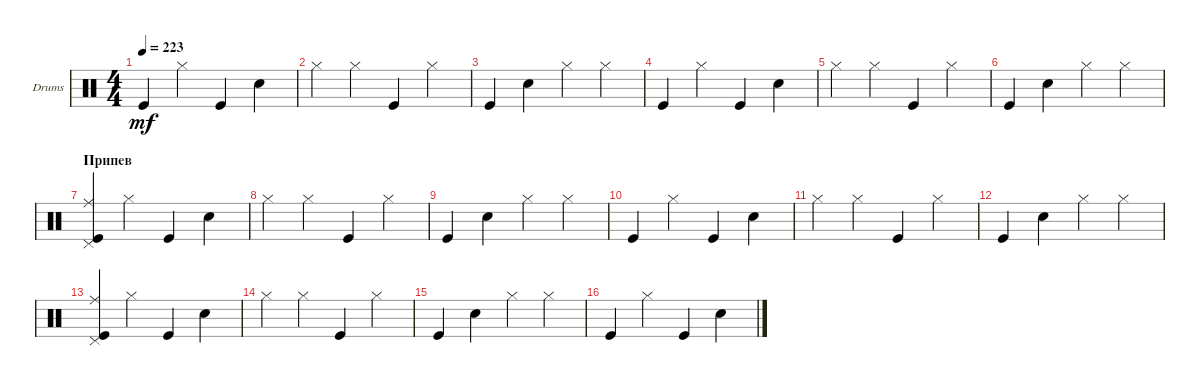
\defaultSystemsLayout 4
\bracketExtendMode groupsimilarinstruments
\firstSystemTrackNameOrientation horizontal
\otherSystemsTrackNameOrientation horizontal
\track ("Drumkit" "Drums") {instrument percussion}
\staff {score}
\articulation defaults
\ts (4 4)
\tempo 223
\clef neutral
\ks c "Kick (hit)".4{dy mf} "Hi-Hat (closed)".4 "Kick (hit)".4 "Snare (hit) 2".4
|
"Hi-Hat (closed)".4 "Hi-Hat (closed)".4 "Kick (hit)".4 "Hi-Hat (closed)".4 |
"Kick (hit)".4 "Snare (hit) 2".4 "Hi-Hat (closed)".4 "Hi-Hat (closed)".4 |
"Kick (hit)".4 "Hi-Hat (closed)".4 "Kick (hit)".4 "Snare (hit) 2".4 |
"Hi-Hat (closed)".4 "Hi-Hat (closed)".4 "Kick (hit)".4 "Hi-Hat (closed)".4 |
"Kick (hit)".4 "Snare (hit) 2".4 "Hi-Hat (closed)".4 "Hi-Hat (closed)".4 |
\section ("" "Припев")
("Kick (hit)" "Ride (middle)" "Pedal Hi-Hat (hit)").4 "Hi-Hat (closed)".4 "Kick (hit)".4 "Snare (hit) 2".4 |
"Hi-Hat (closed)".4 "Hi-Hat (closed)".4 "Kick (hit)".4 "Hi-Hat (closed)".4 |
"Kick (hit)".4 "Snare (hit) 2".4 "Hi-Hat (closed)".4 "Hi-Hat (closed)".4 |
"Kick (hit)".4 "Hi-Hat (closed)".4 "Kick (hit)".4 "Snare (hit) 2".4 |
"Hi-Hat (closed)".4 "Hi-Hat (closed)".4 "Kick (hit)".4 "Hi-Hat (closed)".4 |
"Kick (hit)".4 "Snare (hit) 2".4 "Hi-Hat (closed)".4 "Hi-Hat (closed)".4 |
("Kick (hit)" "Ride (middle)" "Pedal Hi-Hat (hit)").4 "Hi-Hat (closed)".4 "Kick (hit)".4 "Snare (hit) 2".4 |
"Hi-Hat (closed)".4 "Hi-Hat (closed)".4 "Kick (hit)".4 "Hi-Hat (closed)".4 |
"Kick (hit)".4 "Snare (hit) 2".4 "Hi-Hat (closed)".4 "Hi-Hat (closed)".4 |
"Kick (hit)".4 "Hi-Hat (closed)".4 "Kick (hit)".4 "Snare (hit) 2".4
